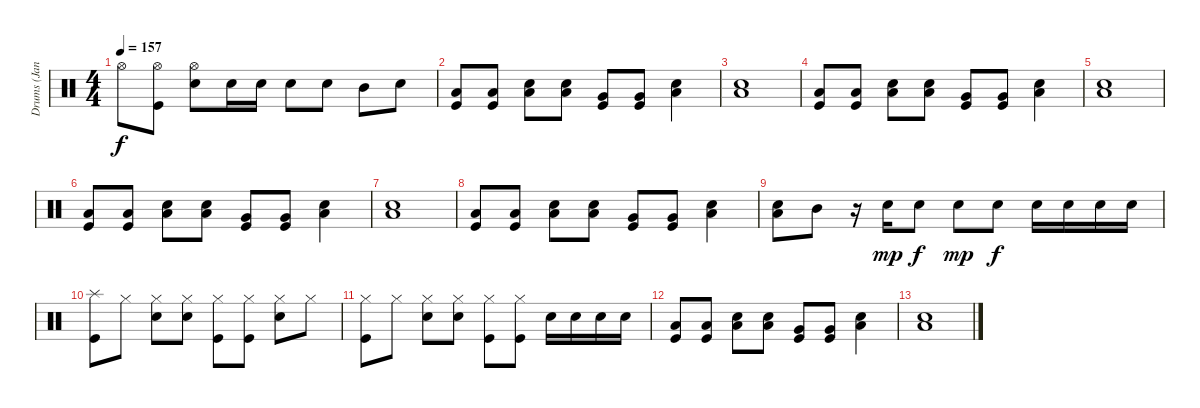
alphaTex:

\track ("Drums (Janet)" "Drums (Jan") {instrument percussion}
\staff {score}
\articulation defaults
\ts (4 4)
\tempo 157
\clef neutral
\ks c "Hi-Hat (open)".8{dy f}
("Hi-Hat (open)" "Kick (hit)").8 ("Hi-Hat (open)" "Snare (hit) 2").8 "Snare (hit) 2".16 "Snare (hit) 2".16 "Snare (hit) 2".8 "Snare (hit) 2".8 "Mid Tom (hit)".8 "Snare (hit) 2".8 |
("Low Tom (hit)" "Kick (hit)").8 ("Low Tom (hit)" "Kick (hit)").8 ("Low Tom (hit)" "Snare (hit) 2").8 ("Low Tom (hit)" "Snare (hit) 2").8 ("Very Low Tom (hit)" "Kick (hit)").8 ("Very Low Tom (hit)" "Kick (hit)").8 ("Low Tom (hit)" "Snare (hit) 2").4 |
("Low Tom (hit)" "Snare (hit) 2").1 |
("Low Tom (hit)" "Kick (hit)").8 ("Low Tom (hit)" "Kick (hit)").8 ("Low Tom (hit)" "Snare (hit) 2").8 ("Low Tom (hit)" "Snare (hit) 2").8 ("Very Low Tom (hit)" "Kick (hit)").8 ("Very Low Tom (hit)" "Kick (hit)").8 ("Low Tom (hit)" "Snare (hit) 2").4 |
("Low Tom (hit)" "Snare (hit) 2").1 |
("Low Tom (hit)" "Kick (hit)").8 ("Low Tom (hit)" "Kick (hit)").8 ("Low Tom (hit)" "Snare (hit) 2").8 ("Low Tom (hit)" "Snare (hit) 2").8 ("Very Low Tom (hit)" "Kick (hit)").8 ("Very Low Tom (hit)" "Kick (hit)").8 ("Low Tom (hit)" "Snare (hit) 2").4 |
("Low Tom (hit)" "Snare (hit) 2").1 |
("Low Tom (hit)" "Kick (hit)").8 ("Low Tom (hit)" "Kick (hit)").8 ("Low Tom (hit)" "Snare (hit) 2").8 ("Low Tom (hit)" "Snare (hit) 2").8 ("Very Low Tom (hit)" "Kick (hit)").8 ("Very Low Tom (hit)" "Kick (hit)").8 ("Low Tom (hit)" "Snare (hit) 2").4 |
("Low Tom (hit)" "Snare (hit) 2").8 "Mid Tom (hit)".8 r.16 "Snare (hit) 2".16{dy mp} "Snare (hit) 2".8{dy f} "Snare (hit) 2".8{dy mp} "Snare (hit) 2".8{dy f} "Snare (hit) 2".16 "Snare (hit) 2".16 "Snare (hit) 2".16 "Snare (hit) 2".16 |
("Splash (hit)" "Kick (hit)").8 "Hi-Hat (closed)".8 ("Hi-Hat (closed)" "Snare (hit) 2").8 ("Hi-Hat (closed)" "Snare (hit) 2").8 ("Hi-Hat (closed)" "Kick (hit)").8 ("Hi-Hat (closed)" "Kick (hit)").8 ("Hi-Hat (closed)" "Snare (hit) 2").8 "Hi-Hat (closed)".8 |
("Hi-Hat (closed)" "Kick (hit)").8 "Hi-Hat (closed)".8 ("Hi-Hat (closed)" "Snare (hit) 2").8 ("Hi-Hat (closed)" "Snare (hit) 2").8 ("Hi-Hat (closed)" "Kick (hit)").8 ("Hi-Hat (closed)" "Kick (hit)").8 "Snare (hit) 2".16 "Snare (hit) 2".16 "Snare (hit) 2".16 "Snare (hit) 2".16 |
("Low Tom (hit)" "Kick (hit)").8 ("Low Tom (hit)" "Kick (hit)").8 ("Low Tom (hit)" "Snare (hit) 2").8 ("Low Tom (hit)" "Snare (hit) 2").8 ("Very Low Tom (hit)" "Kick (hit)").8 ("Very Low Tom (hit)" "Kick (hit)").8 ("Low Tom (hit)" "Snare (hit) 2").4 |
("Low Tom (hit)" "Snare (hit) 2").1
